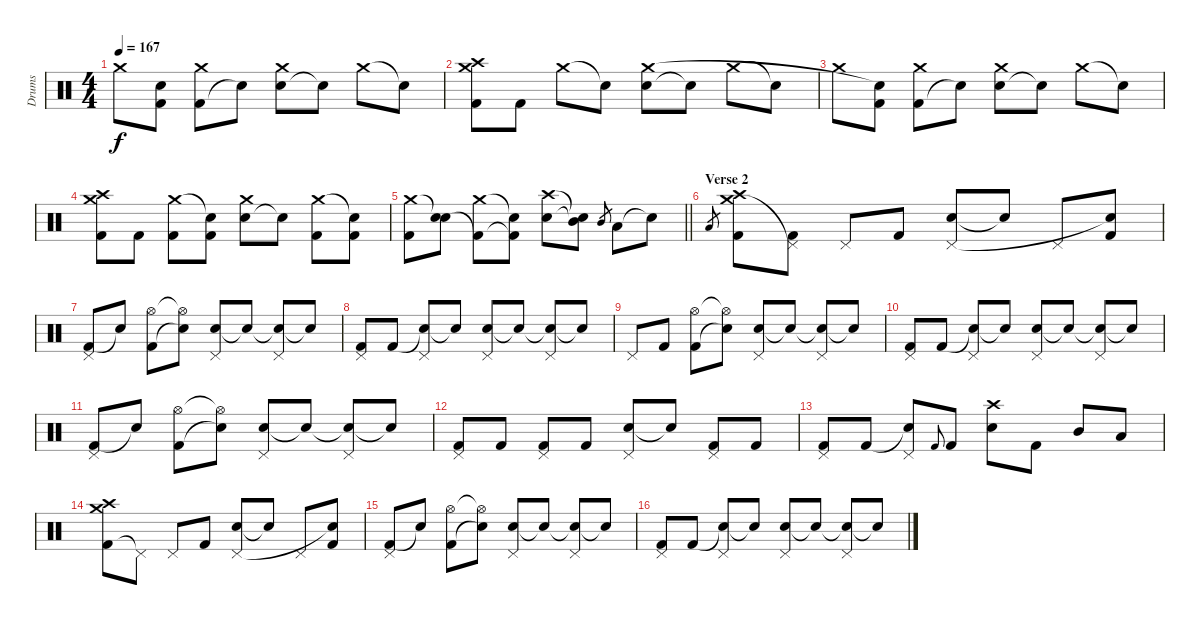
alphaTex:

\track ("Drums" "Drums") {instrument percussion}
\staff {score}
\articulation defaults
\ts (4 4)
\tempo 167
\clef neutral
\ks c "Crash medium (hit)".8{dy f}
("Kick (hit) 2" "Snare (hit)"{t}).8 ("Kick (hit) 2" "Crash medium (hit)").8 "Snare (hit)"{t}.8 ("Electric Snare (hit)" "Crash medium (hit)").8 "Snare (hit)"{t}.8 "Crash medium (hit)".8 "Snare (hit)"{t}.8 |
("Kick (hit) 2" "Crash medium (hit)" "Crash high (hit)").8 "Kick (hit) 2".8 "Crash medium (hit)".8 "Snare (hit)"{t}.8 ("Electric Snare (hit)" "Crash medium (hit)").8 "Snare (hit)"{t}.8 "Crash medium (hit)".8 "Snare (hit)"{t}.8 |
"Crash medium (hit)".8 ("Kick (hit) 2" "Snare (hit)"{t}).8 ("Kick (hit) 2" "Crash medium (hit)").8 "Snare (hit)"{t}.8 ("Electric Snare (hit)" "Crash medium (hit)").8 "Snare (hit)"{t}.8 "Crash medium (hit)".8 "Snare (hit)"{t}.8 |
("Kick (hit) 2" "Crash medium (hit)" "Crash high (hit)").8 "Kick (hit) 2".8 ("Kick (hit) 2" "Crash medium (hit)").8 ("Kick (hit) 2" "Snare (hit)"{t}).8 ("Electric Snare (hit)" "Crash medium (hit)").8 "Snare (hit)"{t}.8 ("Kick (hit) 2" "Crash medium (hit)").8 ("Kick (hit) 2" "Snare (hit)"{t}).8 |
\barLineRight lightlight
("Kick (hit) 2" "Crash medium (hit)").8 ("Electric Snare (hit)" "Snare (hit)"{t}).8 ("Kick (hit) 2"{t} "Crash medium (hit)").8 ("Kick (hit) 2"{t} "Snare (hit)"{t}).8 ("Electric Snare (hit)" "Crash high (hit)").8 ("Mid Tom (hit)"{t} "Snare (hit)"{t}).8 "Mid Tom (hit)".8{gr} "Low Tom (hit)".8 "Snare (hit)"{t}.8 |
\section ("" "Verse 2")
"Low Tom (hit)".8{gr} ("Kick (hit) 2" "Crash medium (hit)" "Crash high (hit)").8 ("Kick (hit) 2" "Pedal Hi-Hat (hit)"{t}).8 "Pedal Hi-Hat (hit)".8 "Kick (hit) 2".8 ("Electric Snare (hit)" "Pedal Hi-Hat (hit)").8 "Snare (hit)"{t}.8 "Pedal Hi-Hat (hit)".8 ("Kick (hit) 2" "Snare (hit)"{t}).8 |
("Kick (hit) 2" "Pedal Hi-Hat (hit)").8 "Snare (hit)"{t}.8 ("Kick (hit) 2" "Hi-Hat (open)").8 ("Snare (hit)"{t} "Hi-Hat (open)"{t}).8 ("Electric Snare (hit)" "Pedal Hi-Hat (hit)").8 "Snare (hit)"{t}.8 ("Snare (hit)"{t} "Pedal Hi-Hat (hit)").8 "Snare (hit)"{t}.8 |
("Kick (hit) 2" "Pedal Hi-Hat (hit)").8 "Kick (hit) 2".8 ("Snare (hit)"{t} "Pedal Hi-Hat (hit)").8 "Snare (hit)"{t}.8 ("Electric Snare (hit)" "Pedal Hi-Hat (hit)").8 "Snare (hit)"{t}.8 ("Snare (hit)"{t} "Pedal Hi-Hat (hit)").8 "Snare (hit)"{t}.8 |
"Pedal Hi-Hat (hit)".8 "Kick (hit) 2".8 ("Kick (hit) 2" "Hi-Hat (open)").8 ("Snare (hit)"{t} "Hi-Hat (open)"{t}).8 ("Electric Snare (hit)" "Pedal Hi-Hat (hit)").8 "Snare (hit)"{t}.8 ("Snare (hit)"{t} "Pedal Hi-Hat (hit)").8 "Snare (hit)"{t}.8 |
("Kick (hit) 2" "Pedal Hi-Hat (hit)").8 "Kick (hit) 2".8 ("Snare (hit)"{t} "Pedal Hi-Hat (hit)").8 "Snare (hit)"{t}.8 ("Electric Snare (hit)" "Pedal Hi-Hat (hit)").8 "Snare (hit)"{t}.8 ("Snare (hit)"{t} "Pedal Hi-Hat (hit)").8 "Snare (hit)"{t}.8 |
("Kick (hit) 2" "Pedal Hi-Hat (hit)").8 "Snare (hit)"{t}.8 ("Kick (hit) 2" "Hi-Hat (open)").8 ("Snare (hit)"{t} "Hi-Hat (open)"{t}).8 ("Electric Snare (hit)" "Pedal Hi-Hat (hit)").8 "Snare (hit)"{t}.8 ("Snare (hit)"{t} "Pedal Hi-Hat (hit)").8 "Snare (hit)"{t}.8 |
("Kick (hit) 2" "Pedal Hi-Hat (hit)").8 "Kick (hit) 2".8 ("Kick (hit) 2" "Pedal Hi-Hat (hit)").8 "Kick (hit) 2".8 ("Electric Snare (hit)" "Pedal Hi-Hat (hit)").8 "Snare (hit)"{t}.8 ("Kick (hit) 2" "Pedal Hi-Hat (hit)").8 "Kick (hit) 2".8 |
("Kick (hit) 2" "Pedal Hi-Hat (hit)").8 "Kick (hit) 2".8 ("Snare (hit)"{t} "Pedal Hi-Hat (hit)").8 "Kick (hit) 2".8{gr onbeat} "Kick (hit) 2".8 ("Electric Snare (hit)" "Crash high (hit)").8 "Kick (hit) 2".8 "Mid Tom (hit)".8 "Low Tom (hit)".8 |
("Kick (hit) 2" "Crash medium (hit)" "Crash high (hit)").8 "Pedal Hi-Hat (hit)"{t}.8 "Pedal Hi-Hat (hit)".8 "Kick (hit) 2".8 ("Electric Snare (hit)" "Pedal Hi-Hat (hit)").8 "Snare (hit)"{t}.8 "Pedal Hi-Hat (hit)".8 ("Kick (hit) 2" "Snare (hit)"{t}).8 |
("Kick (hit) 2" "Pedal Hi-Hat (hit)").8 "Snare (hit)"{t}.8 ("Kick (hit) 2" "Hi-Hat (open)").8 ("Snare (hit)"{t} "Hi-Hat (open)"{t}).8 ("Electric Snare (hit)" "Pedal Hi-Hat (hit)").8 "Snare (hit)"{t}.8 ("Snare (hit)"{t} "Pedal Hi-Hat (hit)").8 "Snare (hit)"{t}.8 |
("Kick (hit) 2" "Pedal Hi-Hat (hit)").8 "Kick (hit) 2".8 ("Snare (hit)"{t} "Pedal Hi-Hat (hit)").8 "Snare (hit)"{t}.8 ("Electric Snare (hit)" "Pedal Hi-Hat (hit)").8 "Snare (hit)"{t}.8 ("Snare (hit)"{t} "Pedal Hi-Hat (hit)").8 "Snare (hit)"{t}.8
